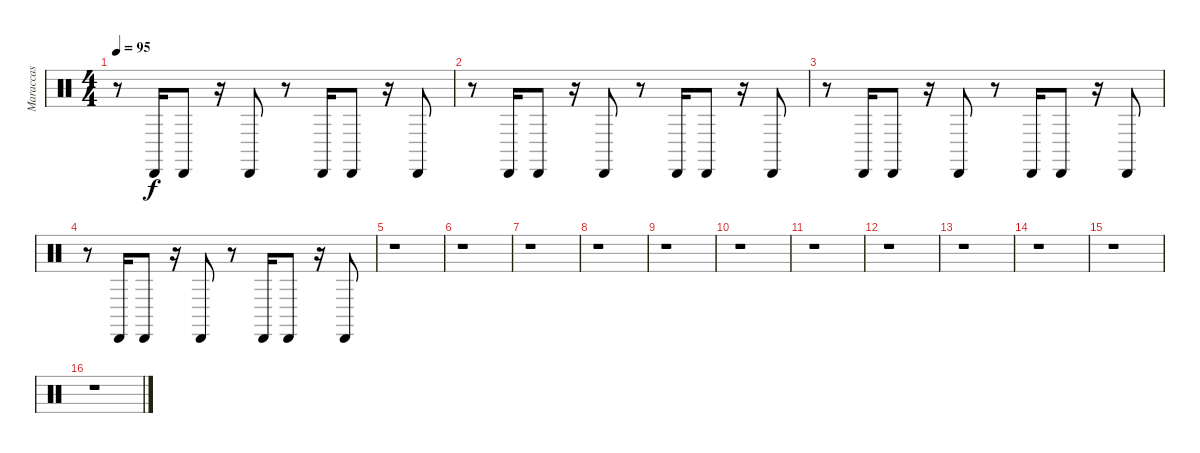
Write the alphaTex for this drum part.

\track ("Maraccas" "Maraccas") {instrument percussion}
\staff {score}
\articulation defaults
\ts (4 4)
\tempo 95
\clef neutral
\ks c
r.8{dy f} "Cabasa (hit)".16 "Cabasa (hit)".8 r.16 "Cabasa (hit)".8 r.8 "Cabasa (hit)".16 "Cabasa (hit)".8 r.16 "Cabasa (hit)".8 |
r.8 "Cabasa (hit)".16 "Cabasa (hit)".8 r.16 "Cabasa (hit)".8 r.8 "Cabasa (hit)".16 "Cabasa (hit)".8 r.16 "Cabasa (hit)".8 |
r.8 "Cabasa (hit)".16 "Cabasa (hit)".8 r.16 "Cabasa (hit)".8 r.8 "Cabasa (hit)".16 "Cabasa (hit)".8 r.16 "Cabasa (hit)".8 |
r.8 "Cabasa (hit)".16 "Cabasa (hit)".8 r.16 "Cabasa (hit)".8 r.8 "Cabasa (hit)".16 "Cabasa (hit)".8 r.16 "Cabasa (hit)".8 |
r.1 |
r.1 |
r.1 |
r.1 |
r.1 |
r.1 |
r.1 |
r.1 |
r.1 |
r.1 |
r.1 |
r.1
